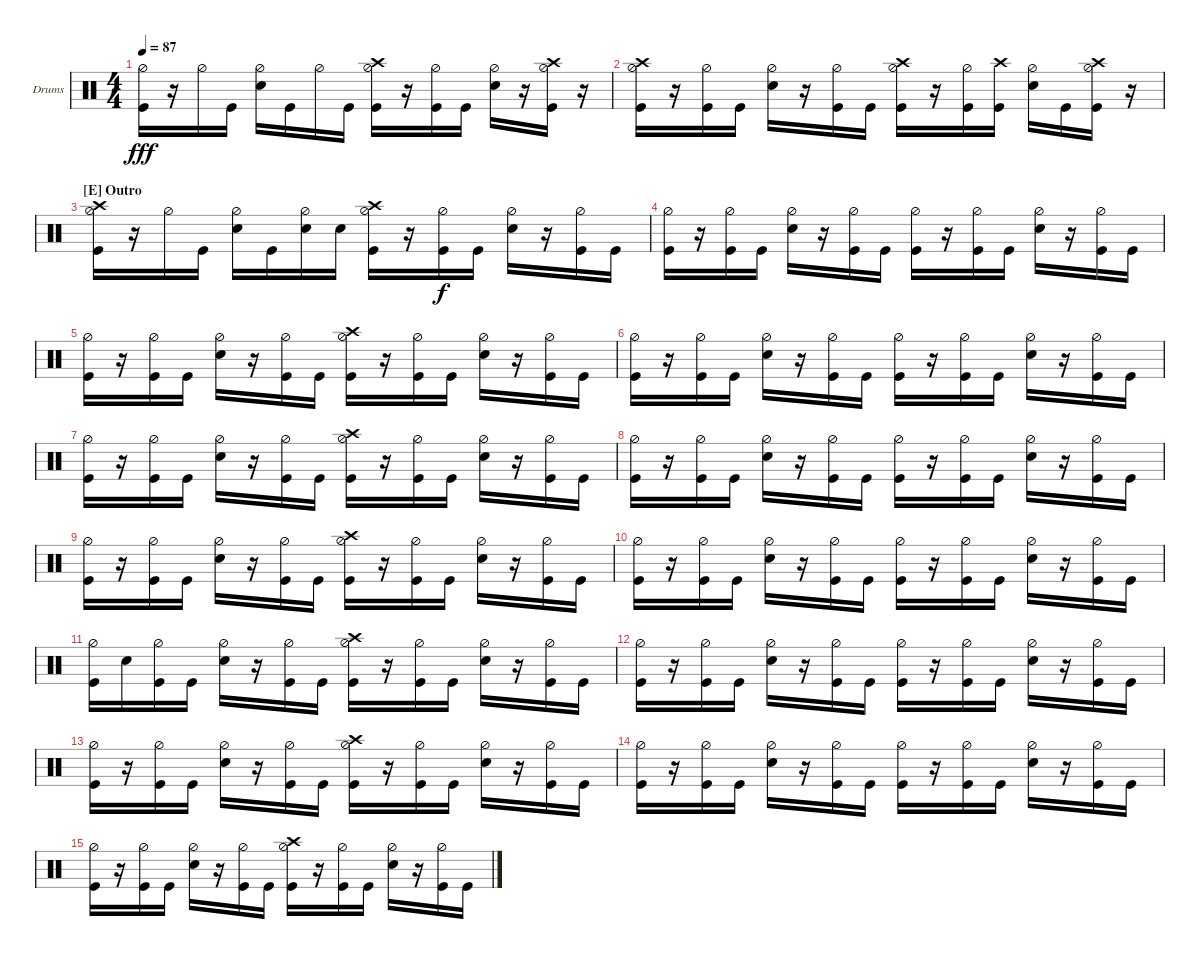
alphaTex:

\defaultSystemsLayout 4
\bracketExtendMode groupsimilarinstruments
\firstSystemTrackNameOrientation horizontal
\otherSystemsTrackNameOrientation horizontal
\track ("Drums" "Drums") {instrument percussion}
\staff {score}
\articulation defaults
\ts (4 4)
\tempo 87
\clef neutral
\scale
0.333333
\ks c
("Kick (hit)" "Hi-Hat (half)").16{dy fff} r.16 "Hi-Hat (half)".16 "Kick (hit)".16 ("Snare (hit) 2" "Hi-Hat (half)").16 "Kick (hit)".16 "Hi-Hat (half)".16 "Kick (hit)".16 ("Kick (hit)" "Hi-Hat (half)" "Crash high (hit)").16 r.16 ("Kick (hit)" "Hi-Hat (half)").16 "Kick (hit)".16 ("Snare (hit) 2" "Hi-Hat (half)").16 r.16 ("Kick (hit)" "Hi-Hat (half)" "Crash high (hit)").16 r.16 |
\scale
0.333333 ("Kick (hit)" "Hi-Hat (half)" "Crash high (hit)").16 r.16 ("Kick (hit)" "Hi-Hat (half)").16 "Kick (hit)".16 ("Snare (hit) 2" "Hi-Hat (half)").16 r.16 ("Kick (hit)" "Hi-Hat (half)").16 "Kick (hit)".16 ("Kick (hit)" "Hi-Hat (half)" "Crash high (hit)").16 r.16 ("Kick (hit)" "Hi-Hat (half)").16 ("Kick (hit)" "Crash high (hit)").16 ("Snare (hit) 2" "Hi-Hat (half)").16 "Kick (hit)".16 ("Kick (hit)" "Hi-Hat (half)" "Crash high (hit)").16 r.16 |
\section ("E" "Outro")
\scale
0.333333 ("Kick (hit)" "Hi-Hat (half)" "Crash high (hit)").16 r.16 "Hi-Hat (half)".16 "Kick (hit)".16 ("Snare (hit) 2" "Hi-Hat (half)").16 "Kick (hit)".16 ("Snare (hit) 2" "Hi-Hat (half)").16 "Snare (hit) 2".16 ("Kick (hit)" "Hi-Hat (half)" "Crash high (hit)").16 r.16 ("Kick (hit)" "Hi-Hat (half)").16{dy f} "Kick (hit)".16 ("Snare (hit) 2" "Hi-Hat (half)").16 r.16 ("Kick (hit)" "Hi-Hat (half)").16 "Kick (hit)".16 |
\scale
0.333333 ("Kick (hit)" "Hi-Hat (half)").16 r.16 ("Kick (hit)" "Hi-Hat (half)").16 "Kick (hit)".16 ("Snare (hit) 2" "Hi-Hat (half)").16 r.16 ("Kick (hit)" "Hi-Hat (half)").16 "Kick (hit)".16 ("Kick (hit)" "Hi-Hat (half)").16 r.16 ("Kick (hit)" "Hi-Hat (half)").16 "Kick (hit)".16 ("Snare (hit) 2" "Hi-Hat (half)").16 r.16 ("Kick (hit)" "Hi-Hat (half)").16 "Kick (hit)".16 |
\scale
0.333333 ("Kick (hit)" "Hi-Hat (half)").16 r.16 ("Kick (hit)" "Hi-Hat (half)").16 "Kick (hit)".16 ("Snare (hit) 2" "Hi-Hat (half)").16 r.16 ("Kick (hit)" "Hi-Hat (half)").16 "Kick (hit)".16 ("Kick (hit)" "Hi-Hat (half)" "Crash high (hit)").16 r.16 ("Kick (hit)" "Hi-Hat (half)").16 "Kick (hit)".16 ("Snare (hit) 2" "Hi-Hat (half)").16 r.16 ("Kick (hit)" "Hi-Hat (half)").16 "Kick (hit)".16 |
\scale
0.333333 ("Kick (hit)" "Hi-Hat (half)").16 r.16 ("Kick (hit)" "Hi-Hat (half)").16 "Kick (hit)".16 ("Snare (hit) 2" "Hi-Hat (half)").16 r.16 ("Kick (hit)" "Hi-Hat (half)").16 "Kick (hit)".16 ("Kick (hit)" "Hi-Hat (half)").16 r.16 ("Kick (hit)" "Hi-Hat (half)").16 "Kick (hit)".16 ("Snare (hit) 2" "Hi-Hat (half)").16 r.16 ("Kick (hit)" "Hi-Hat (half)").16 "Kick (hit)".16 |
\scale
0.333333 ("Kick (hit)" "Hi-Hat (half)").16 r.16 ("Kick (hit)" "Hi-Hat (half)").16 "Kick (hit)".16 ("Snare (hit) 2" "Hi-Hat (half)").16 r.16 ("Kick (hit)" "Hi-Hat (half)").16 "Kick (hit)".16 ("Kick (hit)" "Hi-Hat (half)" "Crash high (hit)").16 r.16 ("Kick (hit)" "Hi-Hat (half)").16 "Kick (hit)".16 ("Snare (hit) 2" "Hi-Hat (half)").16 r.16 ("Kick (hit)" "Hi-Hat (half)").16 "Kick (hit)".16 |
\scale
0.333333 ("Kick (hit)" "Hi-Hat (half)").16 r.16 ("Kick (hit)" "Hi-Hat (half)").16 "Kick (hit)".16 ("Snare (hit) 2" "Hi-Hat (half)").16 r.16 ("Kick (hit)" "Hi-Hat (half)").16 "Kick (hit)".16 ("Kick (hit)" "Hi-Hat (half)").16 r.16 ("Kick (hit)" "Hi-Hat (half)").16 "Kick (hit)".16 ("Snare (hit) 2" "Hi-Hat (half)").16 r.16 ("Kick (hit)" "Hi-Hat (half)").16 "Kick (hit)".16 |
\scale
0.333333 ("Kick (hit)" "Hi-Hat (half)").16 r.16 ("Kick (hit)" "Hi-Hat (half)").16 "Kick (hit)".16 ("Snare (hit) 2" "Hi-Hat (half)").16 r.16 ("Kick (hit)" "Hi-Hat (half)").16 "Kick (hit)".16 ("Kick (hit)" "Hi-Hat (half)" "Crash high (hit)").16 r.16 ("Kick (hit)" "Hi-Hat (half)").16 "Kick (hit)".16 ("Snare (hit) 2" "Hi-Hat (half)").16 r.16 ("Kick (hit)" "Hi-Hat (half)").16 "Kick (hit)".16 |
\scale
0.333333 ("Kick (hit)" "Hi-Hat (half)").16 r.16 ("Kick (hit)" "Hi-Hat (half)").16 "Kick (hit)".16 ("Snare (hit) 2" "Hi-Hat (half)").16 r.16 ("Kick (hit)" "Hi-Hat (half)").16 "Kick (hit)".16 ("Kick (hit)" "Hi-Hat (half)").16 r.16 ("Kick (hit)" "Hi-Hat (half)").16 "Kick (hit)".16 ("Snare (hit) 2" "Hi-Hat (half)").16 r.16 ("Kick (hit)" "Hi-Hat (half)").16 "Kick (hit)".16 |
\scale
0.333333 ("Kick (hit)" "Hi-Hat (half)").16 "Snare (hit) 2".16 ("Kick (hit)" "Hi-Hat (half)").16 "Kick (hit)".16 ("Snare (hit) 2" "Hi-Hat (half)").16 r.16 ("Kick (hit)" "Hi-Hat (half)").16 "Kick (hit)".16 ("Kick (hit)" "Hi-Hat (half)" "Crash high (hit)").16 r.16 ("Kick (hit)" "Hi-Hat (half)").16 "Kick (hit)".16 ("Snare (hit) 2" "Hi-Hat (half)").16 r.16 ("Kick (hit)" "Hi-Hat (half)").16 "Kick (hit)".16 |
\scale
0.333333 ("Kick (hit)" "Hi-Hat (half)").16 r.16 ("Kick (hit)" "Hi-Hat (half)").16 "Kick (hit)".16 ("Snare (hit) 2" "Hi-Hat (half)").16 r.16 ("Kick (hit)" "Hi-Hat (half)").16 "Kick (hit)".16 ("Kick (hit)" "Hi-Hat (half)").16 r.16 ("Kick (hit)" "Hi-Hat (half)").16 "Kick (hit)".16 ("Snare (hit) 2" "Hi-Hat (half)").16 r.16 ("Kick (hit)" "Hi-Hat (half)").16 "Kick (hit)".16 |
\scale
0.333333 ("Kick (hit)" "Hi-Hat (half)").16 r.16 ("Kick (hit)" "Hi-Hat (half)").16 "Kick (hit)".16 ("Snare (hit) 2" "Hi-Hat (half)").16 r.16 ("Kick (hit)" "Hi-Hat (half)").16 "Kick (hit)".16 ("Kick (hit)" "Hi-Hat (half)" "Crash high (hit)").16 r.16 ("Kick (hit)" "Hi-Hat (half)").16 "Kick (hit)".16 ("Snare (hit) 2" "Hi-Hat (half)").16 r.16 ("Kick (hit)" "Hi-Hat (half)").16 "Kick (hit)".16 |
("Kick (hit)" "Hi-Hat (half)").16 r.16 ("Kick (hit)" "Hi-Hat (half)").16 "Kick (hit)".16 ("Snare (hit) 2" "Hi-Hat (half)").16 r.16 ("Kick (hit)" "Hi-Hat (half)").16 "Kick (hit)".16 ("Kick (hit)" "Hi-Hat (half)").16 r.16 ("Kick (hit)" "Hi-Hat (half)").16 "Kick (hit)".16 ("Snare (hit) 2" "Hi-Hat (half)").16 r.16 ("Kick (hit)" "Hi-Hat (half)").16 "Kick (hit)".16 |
("Kick (hit)" "Hi-Hat (half)").16 r.16 ("Kick (hit)" "Hi-Hat (half)").16 "Kick (hit)".16 ("Snare (hit) 2" "Hi-Hat (half)").16 r.16 ("Kick (hit)" "Hi-Hat (half)").16 "Kick (hit)".16 ("Kick (hit)" "Hi-Hat (half)" "Crash high (hit)").16 r.16 ("Kick (hit)" "Hi-Hat (half)").16 "Kick (hit)".16 ("Snare (hit) 2" "Hi-Hat (half)").16 r.16 ("Kick (hit)" "Hi-Hat (half)").16 "Kick (hit)".16
